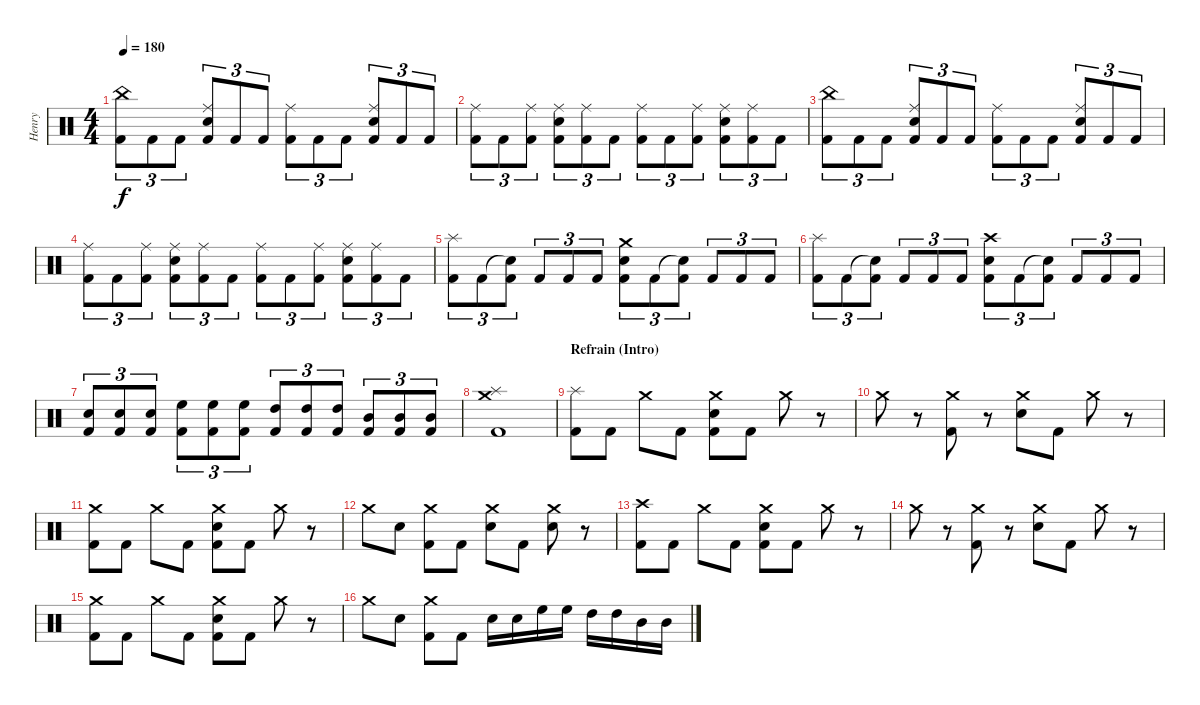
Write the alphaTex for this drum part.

\track ("Henry" "Henry") {instrument percussion}
\staff {score}
\articulation defaults
\ts (4 4)
\tempo 180
\clef neutral
\ks c
("China (hit)" "Kick (hit) 2").8{tu (3 2) dy f} "Kick (hit) 2".8{tu (3 2)} "Kick (hit) 2".8{tu (3 2)} ("Ride (middle)" "Snare (hit) 2" "Kick (hit) 2").8{tu (3 2)} "Kick (hit) 2".8{tu (3 2)} "Kick (hit) 2".8{tu (3 2)} ("Ride (middle)" "Kick (hit) 2").8{tu (3 2)} "Kick (hit) 2".8{tu (3 2)} "Kick (hit) 2".8{tu (3 2)} ("Ride (middle)" "Snare (hit) 2" "Kick (hit) 2").8{tu (3 2)} "Kick (hit) 2".8{tu (3 2)} "Kick (hit) 2".8{tu (3 2)} |
("Ride (middle)" "Kick (hit) 2").8{tu (3 2)} "Kick (hit) 2".8{tu (3 2)} ("Ride (middle)" "Kick (hit) 2").8{tu (3 2)} ("Ride (middle)" "Snare (hit) 2" "Kick (hit) 2").8{tu (3 2)} ("Ride (middle)" "Kick (hit) 2").8{tu (3 2)} "Kick (hit) 2".8{tu (3 2)} ("Ride (middle)" "Kick (hit) 2").8{tu (3 2)} "Kick (hit) 2".8{tu (3 2)} ("Ride (middle)" "Kick (hit) 2").8{tu (3 2)} ("Ride (middle)" "Snare (hit) 2" "Kick (hit) 2").8{tu (3 2)} ("Ride (middle)" "Kick (hit) 2").8{tu (3 2)} "Kick (hit) 2".8{tu (3 2)} |
("China (hit)" "Kick (hit) 2").8{tu (3 2)} "Kick (hit) 2".8{tu (3 2)} "Kick (hit) 2".8{tu (3 2)} ("Ride (middle)" "Snare (hit) 2" "Kick (hit) 2").8{tu (3 2)} "Kick (hit) 2".8{tu (3 2)} "Kick (hit) 2".8{tu (3 2)} ("Ride (middle)" "Kick (hit) 2").8{tu (3 2)} "Kick (hit) 2".8{tu (3 2)} "Kick (hit) 2".8{tu (3 2)} ("Ride (middle)" "Snare (hit) 2" "Kick (hit) 2").8{tu (3 2)} "Kick (hit) 2".8{tu (3 2)} "Kick (hit) 2".8{tu (3 2)} |
("Ride (middle)" "Kick (hit) 2").8{tu (3 2)} "Kick (hit) 2".8{tu (3 2)} ("Ride (middle)" "Kick (hit) 2").8{tu (3 2)} ("Ride (middle)" "Snare (hit) 2" "Kick (hit) 2").8{tu (3 2)} ("Ride (middle)" "Kick (hit) 2").8{tu (3 2)} "Kick (hit) 2".8{tu (3 2)} ("Ride (middle)" "Kick (hit) 2").8{tu (3 2)} "Kick (hit) 2".8{tu (3 2)} ("Ride (middle)" "Kick (hit) 2").8{tu (3 2)} ("Ride (middle)" "Snare (hit) 2" "Kick (hit) 2").8{tu (3 2)} ("Ride (middle)" "Kick (hit) 2").8{tu (3 2)} "Kick (hit) 2".8{tu (3 2)} |
("Splash (hit)" "Kick (hit) 2").8{tu (3 2)} "Kick (hit) 2".8{tu (3 2)} ("Snare (hit)"{t} "Kick (hit) 2").8{tu (3 2)} "Kick (hit) 2".8{tu (3 2)} "Kick (hit) 2".8{tu (3 2)} "Kick (hit) 2".8{tu (3 2)} ("Crash medium (hit)" "Snare (hit) 2" "Kick (hit) 2").8{tu (3 2)} "Kick (hit) 2".8{tu (3 2)} ("Snare (hit)"{t} "Kick (hit) 2").8{tu (3 2)} "Kick (hit) 2".8{tu (3 2)} "Kick (hit) 2".8{tu (3 2)} "Kick (hit) 2".8{tu (3 2)} |
("Splash (hit)" "Kick (hit) 2").8{tu (3 2)} "Kick (hit) 2".8{tu (3 2)} ("Snare (hit)"{t} "Kick (hit) 2").8{tu (3 2)} "Kick (hit) 2".8{tu (3 2)} "Kick (hit) 2".8{tu (3 2)} "Kick (hit) 2".8{tu (3 2)} ("Crash high (hit)" "Snare (hit) 2" "Kick (hit) 2").8{tu (3 2)} "Kick (hit) 2".8{tu (3 2)} ("Snare (hit)"{t} "Kick (hit) 2").8{tu (3 2)} "Kick (hit) 2".8{tu (3 2)} "Kick (hit) 2".8{tu (3 2)} "Kick (hit) 2".8{tu (3 2)} |
("Snare (hit) 2" "Kick (hit) 2").8{tu (3 2)} ("Snare (hit) 2" "Kick (hit) 2").8{tu (3 2)} ("Snare (hit) 2" "Kick (hit) 2").8{tu (3 2)} ("High Floor Tom (hit)" "Kick (hit) 2").8{tu (3 2)} ("High Floor Tom (hit)" "Kick (hit) 2").8{tu (3 2)} ("High Floor Tom (hit)" "Kick (hit) 2").8{tu (3 2)} ("High Tom (hit)" "Kick (hit) 2").8{tu (3 2)} ("High Tom (hit)" "Kick (hit) 2").8{tu (3 2)} ("High Tom (hit)" "Kick (hit) 2").8{tu (3 2)} ("Mid Tom (hit)" "Kick (hit) 2").8{tu (3 2)} ("Mid Tom (hit)" "Kick (hit) 2").8{tu (3 2)} ("Mid Tom (hit)" "Kick (hit) 2").8{tu (3 2)} |
("Splash (hit)" "Crash medium (hit)" "Kick (hit) 2").1 |
\section ("" "Refrain (Intro)")
("Splash (hit)" "Kick (hit) 2").8 "Kick (hit) 2".8 "Crash medium (hit)".8 "Kick (hit) 2".8 ("Crash medium (hit)" "Snare (hit) 2" "Kick (hit) 2").8 "Kick (hit) 2".8 "Crash medium (hit)".8 r.8 |
"Crash medium (hit)".8 r.8 ("Crash medium (hit)" "Kick (hit) 2").8 r.8 ("Crash medium (hit)" "Snare (hit) 2").8 "Kick (hit) 2".8 "Crash medium (hit)".8 r.8 |
("Crash medium (hit)" "Kick (hit) 2").8 "Kick (hit) 2".8 "Crash medium (hit)".8 "Kick (hit) 2".8 ("Crash medium (hit)" "Snare (hit) 2" "Kick (hit) 2").8 "Kick (hit) 2".8 "Crash medium (hit)".8 r.8 |
"Crash medium (hit)".8 "Snare (hit) 2".8 ("Crash medium (hit)" "Kick (hit) 2").8 "Kick (hit) 2".8 ("Crash medium (hit)" "Snare (hit) 2").8 "Kick (hit) 2".8 ("Crash medium (hit)" "Snare (hit) 2").8 r.8 |
("Crash high (hit)" "Kick (hit) 2").8 "Kick (hit) 2".8 "Crash medium (hit)".8 "Kick (hit) 2".8 ("Crash medium (hit)" "Snare (hit) 2" "Kick (hit) 2").8 "Kick (hit) 2".8 "Crash medium (hit)".8 r.8 |
"Crash medium (hit)".8 r.8 ("Crash medium (hit)" "Kick (hit) 2").8 r.8 ("Crash medium (hit)" "Snare (hit) 2").8 "Kick (hit) 2".8 "Crash medium (hit)".8 r.8 |
("Crash medium (hit)" "Kick (hit) 2").8 "Kick (hit) 2".8 "Crash medium (hit)".8 "Kick (hit) 2".8 ("Crash medium (hit)" "Snare (hit) 2" "Kick (hit) 2").8 "Kick (hit) 2".8 "Crash medium (hit)".8 r.8 |
"Crash medium (hit)".8 "Snare (hit) 2".8 ("Crash medium (hit)" "Kick (hit) 2").8 "Kick (hit) 2".8 "Snare (hit) 2".16 "Snare (hit) 2".16 "High Floor Tom (hit)".16 "High Floor Tom (hit)".16 "High Tom (hit)".16 "High Tom (hit)".16 "Mid Tom (hit)".16 "Mid Tom (hit)".16
